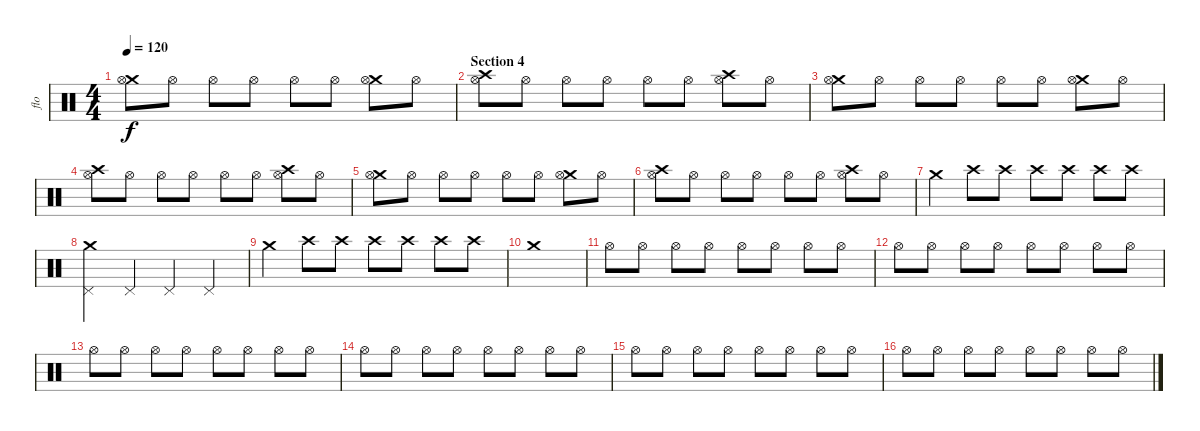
\track ("flo" "flo") {instrument percussion}
\staff {score}
\articulation defaults
\ts (4 4)
\tempo 120
\clef neutral
\ks c
("Crash medium (hit)" "Hi-Hat (open)").8{dy f} "Hi-Hat (open)".8 "Hi-Hat (open)".8 "Hi-Hat (open)".8 "Hi-Hat (open)".8 "Hi-Hat (open)".8 ("Crash medium (hit)" "Hi-Hat (open)").8 "Hi-Hat (open)".8 |
\section ("" "Section 4")
("Crash high (hit)" "Hi-Hat (open)").8 "Hi-Hat (open)".8 "Hi-Hat (open)".8 "Hi-Hat (open)".8 "Hi-Hat (open)".8 "Hi-Hat (open)".8 ("Crash high (hit)" "Hi-Hat (open)").8 "Hi-Hat (open)".8 |
("Crash medium (hit)" "Hi-Hat (open)").8 "Hi-Hat (open)".8 "Hi-Hat (open)".8 "Hi-Hat (open)".8 "Hi-Hat (open)".8 "Hi-Hat (open)".8 ("Crash medium (hit)" "Hi-Hat (open)").8 "Hi-Hat (open)".8 |
("Crash high (hit)" "Hi-Hat (open)").8 "Hi-Hat (open)".8 "Hi-Hat (open)".8 "Hi-Hat (open)".8 "Hi-Hat (open)".8 "Hi-Hat (open)".8 ("Crash high (hit)" "Hi-Hat (open)").8 "Hi-Hat (open)".8 |
("Crash medium (hit)" "Hi-Hat (open)").8 "Hi-Hat (open)".8 "Hi-Hat (open)".8 "Hi-Hat (open)".8 "Hi-Hat (open)".8 "Hi-Hat (open)".8 ("Crash medium (hit)" "Hi-Hat (open)").8 "Hi-Hat (open)".8 |
("Crash high (hit)" "Hi-Hat (open)").8 "Hi-Hat (open)".8 "Hi-Hat (open)".8 "Hi-Hat (open)".8 "Hi-Hat (open)".8 "Hi-Hat (open)".8 ("Crash high (hit)" "Hi-Hat (open)").8 "Hi-Hat (open)".8 |
"Crash medium (hit)".4 "Crash high (hit)".8 "Crash high (hit)".8 "Crash high (hit)".8 "Crash high (hit)".8 "Crash high (hit)".8 "Crash high (hit)".8 |
("Crash medium (hit)" "Pedal Hi-Hat (hit)").4 "Pedal Hi-Hat (hit)".4 "Pedal Hi-Hat (hit)".4 "Pedal Hi-Hat (hit)".4 |
"Crash medium (hit)".4 "Crash high (hit)".8 "Crash high (hit)".8 "Crash high (hit)".8 "Crash high (hit)".8 "Crash high (hit)".8 "Crash high (hit)".8 |
"Crash medium (hit)".1 |
"Hi-Hat (open)".8 "Hi-Hat (open)".8 "Hi-Hat (open)".8 "Hi-Hat (open)".8 "Hi-Hat (open)".8 "Hi-Hat (open)".8 "Hi-Hat (open)".8 "Hi-Hat (open)".8 |
"Hi-Hat (open)".8 "Hi-Hat (open)".8 "Hi-Hat (open)".8 "Hi-Hat (open)".8 "Hi-Hat (open)".8 "Hi-Hat (open)".8 "Hi-Hat (open)".8 "Hi-Hat (open)".8 |
"Hi-Hat (open)".8 "Hi-Hat (open)".8 "Hi-Hat (open)".8 "Hi-Hat (open)".8 "Hi-Hat (open)".8 "Hi-Hat (open)".8 "Hi-Hat (open)".8 "Hi-Hat (open)".8 |
"Hi-Hat (open)".8 "Hi-Hat (open)".8 "Hi-Hat (open)".8 "Hi-Hat (open)".8 "Hi-Hat (open)".8 "Hi-Hat (open)".8 "Hi-Hat (open)".8 "Hi-Hat (open)".8 |
"Hi-Hat (open)".8 "Hi-Hat (open)".8 "Hi-Hat (open)".8 "Hi-Hat (open)".8 "Hi-Hat (open)".8 "Hi-Hat (open)".8 "Hi-Hat (open)".8 "Hi-Hat (open)".8 |
"Hi-Hat (open)".8 "Hi-Hat (open)".8 "Hi-Hat (open)".8 "Hi-Hat (open)".8 "Hi-Hat (open)".8 "Hi-Hat (open)".8 "Hi-Hat (open)".8 "Hi-Hat (open)".8
